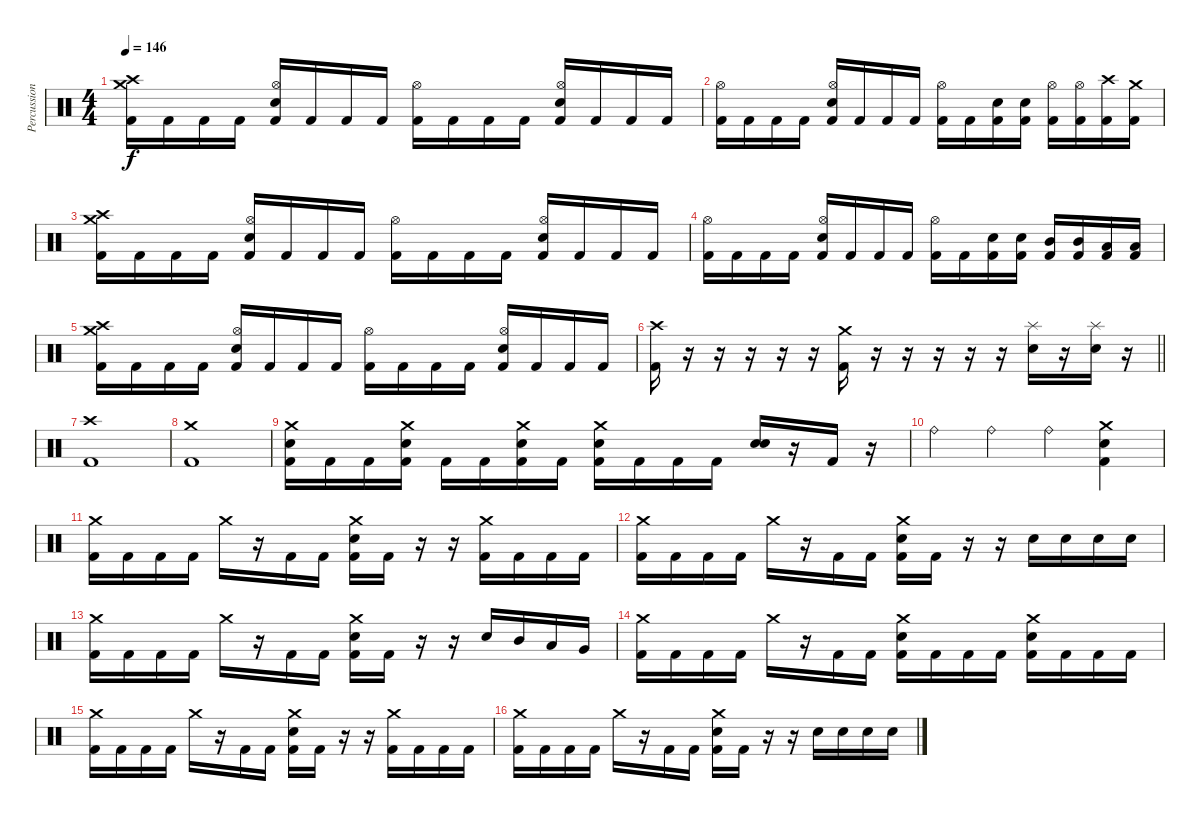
\track ("Percussion" "Percussion") {instrument percussion}
\staff {score}
\articulation defaults
\ts (4 4)
\tempo 146
\clef neutral
\ks c
("Crash high (hit)" "Crash medium (hit)" "Kick (hit) 2").16{dy f} "Kick (hit) 2".16 "Kick (hit) 2".16 "Kick (hit) 2".16 ("Hi-Hat (open)" "Snare (hit) 2" "Kick (hit) 2").16 "Kick (hit) 2".16 "Kick (hit) 2".16 "Kick (hit) 2".16 ("Hi-Hat (open)" "Kick (hit) 2").16 "Kick (hit) 2".16 "Kick (hit) 2".16 "Kick (hit) 2".16 ("Hi-Hat (open)" "Snare (hit) 2" "Kick (hit) 2").16 "Kick (hit) 2".16 "Kick (hit) 2".16 "Kick (hit) 2".16 |
("Hi-Hat (open)" "Kick (hit) 2").16 "Kick (hit) 2".16 "Kick (hit) 2".16 "Kick (hit) 2".16 ("Hi-Hat (open)" "Snare (hit) 2" "Kick (hit) 2").16 "Kick (hit) 2".16 "Kick (hit) 2".16 "Kick (hit) 2".16 ("Hi-Hat (open)" "Kick (hit) 2").16 "Kick (hit) 2".16 ("Snare (hit) 2" "Kick (hit) 2").16 ("Snare (hit) 2" "Kick (hit) 2").16 ("Hi-Hat (open)" "Kick (hit) 2").16 ("Hi-Hat (open)" "Kick (hit) 2").16 ("Crash high (hit)" "Kick (hit) 2").16 ("Crash medium (hit)" "Kick (hit) 2").16 |
("Crash high (hit)" "Crash medium (hit)" "Kick (hit) 2").16 "Kick (hit) 2".16 "Kick (hit) 2".16 "Kick (hit) 2".16 ("Hi-Hat (open)" "Snare (hit) 2" "Kick (hit) 2").16 "Kick (hit) 2".16 "Kick (hit) 2".16 "Kick (hit) 2".16 ("Hi-Hat (open)" "Kick (hit) 2").16 "Kick (hit) 2".16 "Kick (hit) 2".16 "Kick (hit) 2".16 ("Hi-Hat (open)" "Snare (hit) 2" "Kick (hit) 2").16 "Kick (hit) 2".16 "Kick (hit) 2".16 "Kick (hit) 2".16 |
("Hi-Hat (open)" "Kick (hit) 2").16 "Kick (hit) 2".16 "Kick (hit) 2".16 "Kick (hit) 2".16 ("Hi-Hat (open)" "Snare (hit) 2" "Kick (hit) 2").16 "Kick (hit) 2".16 "Kick (hit) 2".16 "Kick (hit) 2".16 ("Hi-Hat (open)" "Kick (hit) 2").16 "Kick (hit) 2".16 ("Snare (hit) 2" "Kick (hit) 2").16 ("Snare (hit) 2" "Kick (hit) 2").16 ("Mid Tom (hit)" "Kick (hit) 2").16 ("Mid Tom (hit)" "Kick (hit) 2").16 ("Low Tom (hit)" "Kick (hit) 2").16 ("Low Tom (hit)" "Kick (hit) 2").16 |
("Crash high (hit)" "Crash medium (hit)" "Kick (hit) 2").16 "Kick (hit) 2".16 "Kick (hit) 2".16 "Kick (hit) 2".16 ("Hi-Hat (open)" "Snare (hit) 2" "Kick (hit) 2").16 "Kick (hit) 2".16 "Kick (hit) 2".16 "Kick (hit) 2".16 ("Hi-Hat (open)" "Kick (hit) 2").16 "Kick (hit) 2".16 "Kick (hit) 2".16 "Kick (hit) 2".16 ("Hi-Hat (open)" "Snare (hit) 2" "Kick (hit) 2").16 "Kick (hit) 2".16 "Kick (hit) 2".16 "Kick (hit) 2".16 |
\barLineRight lightlight
("Crash high (hit)" "Kick (hit) 2").16 r.16 r.16 r.16 r.16 r.16 ("Crash medium (hit)" "Kick (hit) 2").16 r.16 r.16 r.16 r.16 r.16 ("Splash (hit)" "Snare (hit) 2").16 r.16 ("Splash (hit)" "Snare (hit) 2").16 r.16 |
("Crash high (hit)" "Kick (hit) 2").1 |
("Crash medium (hit)" "Kick (hit) 2").1{volume 16} |
("Crash medium (hit)" "Snare (hit) 2" "Kick (hit) 2").16{volume 16} "Kick (hit) 2".16 "Kick (hit) 2".16 ("Crash medium (hit)" "Snare (hit) 2" "Kick (hit) 2").16 "Kick (hit) 2".16 "Kick (hit) 2".16 ("Crash medium (hit)" "Snare (hit) 2" "Kick (hit) 2").16 "Kick (hit) 2".16 ("Crash medium (hit)" "Snare (hit) 2" "Kick (hit) 2").16 "Kick (hit) 2".16 "Kick (hit) 2".16 "Kick (hit) 2".16 ("Snare (hit) 2" "Snare (hit) 2").16 r.16 "Kick (hit) 2".16 r.16 |
"Ride (bell)".4 "Ride (bell)".4 "Ride (bell)".4 ("Crash medium (hit)" "Snare (hit) 2" "Kick (hit) 2").4 |
("Crash medium (hit)" "Kick (hit) 2").16{volume 16} "Kick (hit) 2".16 "Kick (hit) 2".16 "Kick (hit) 2".16 "Crash medium (hit)".16 r.16 "Kick (hit) 2".16 "Kick (hit) 2".16 ("Crash medium (hit)" "Snare (hit) 2" "Kick (hit) 2").16 "Kick (hit) 2".16 r.16 r.16 ("Crash medium (hit)" "Kick (hit) 2").16 "Kick (hit) 2".16 "Kick (hit) 2".16 "Kick (hit) 2".16 |
("Crash medium (hit)" "Kick (hit) 2").16{volume 16} "Kick (hit) 2".16 "Kick (hit) 2".16 "Kick (hit) 2".16 "Crash medium (hit)".16 r.16 "Kick (hit) 2".16 "Kick (hit) 2".16 ("Crash medium (hit)" "Snare (hit) 2" "Kick (hit) 2").16 "Kick (hit) 2".16 r.16 r.16 "Snare (hit) 2".16 "Snare (hit) 2".16 "Snare (hit) 2".16 "Snare (hit) 2".16 |
("Crash medium (hit)" "Kick (hit) 2").16{volume 16} "Kick (hit) 2".16 "Kick (hit) 2".16 "Kick (hit) 2".16 "Crash medium (hit)".16 r.16 "Kick (hit) 2".16 "Kick (hit) 2".16 ("Crash medium (hit)" "Snare (hit) 2" "Kick (hit) 2").16 "Kick (hit) 2".16 r.16 r.16 "Snare (hit) 2".16 "Mid Tom (hit)".16 "Low Tom (hit)".16 "Very Low Tom (hit)".16 |
("Crash medium (hit)" "Kick (hit) 2").16{volume 16} "Kick (hit) 2".16 "Kick (hit) 2".16 "Kick (hit) 2".16 "Crash medium (hit)".16 r.16 "Kick (hit) 2".16 "Kick (hit) 2".16 ("Crash medium (hit)" "Snare (hit) 2" "Kick (hit) 2").16 "Kick (hit) 2".16 "Kick (hit) 2".16 "Kick (hit) 2".16 ("Crash medium (hit)" "Snare (hit) 2" "Kick (hit) 2").16 "Kick (hit) 2".16 "Kick (hit) 2".16 "Kick (hit) 2".16 |
("Crash medium (hit)" "Kick (hit) 2").16{volume 16} "Kick (hit) 2".16 "Kick (hit) 2".16 "Kick (hit) 2".16 "Crash medium (hit)".16 r.16 "Kick (hit) 2".16 "Kick (hit) 2".16 ("Crash medium (hit)" "Snare (hit) 2" "Kick (hit) 2").16 "Kick (hit) 2".16 r.16 r.16 ("Crash medium (hit)" "Kick (hit) 2").16 "Kick (hit) 2".16 "Kick (hit) 2".16 "Kick (hit) 2".16 |
("Crash medium (hit)" "Kick (hit) 2").16{volume 16} "Kick (hit) 2".16 "Kick (hit) 2".16 "Kick (hit) 2".16 "Crash medium (hit)".16 r.16 "Kick (hit) 2".16 "Kick (hit) 2".16 ("Crash medium (hit)" "Snare (hit) 2" "Kick (hit) 2").16 "Kick (hit) 2".16 r.16 r.16 "Snare (hit) 2".16 "Snare (hit) 2".16 "Snare (hit) 2".16 "Snare (hit) 2".16
